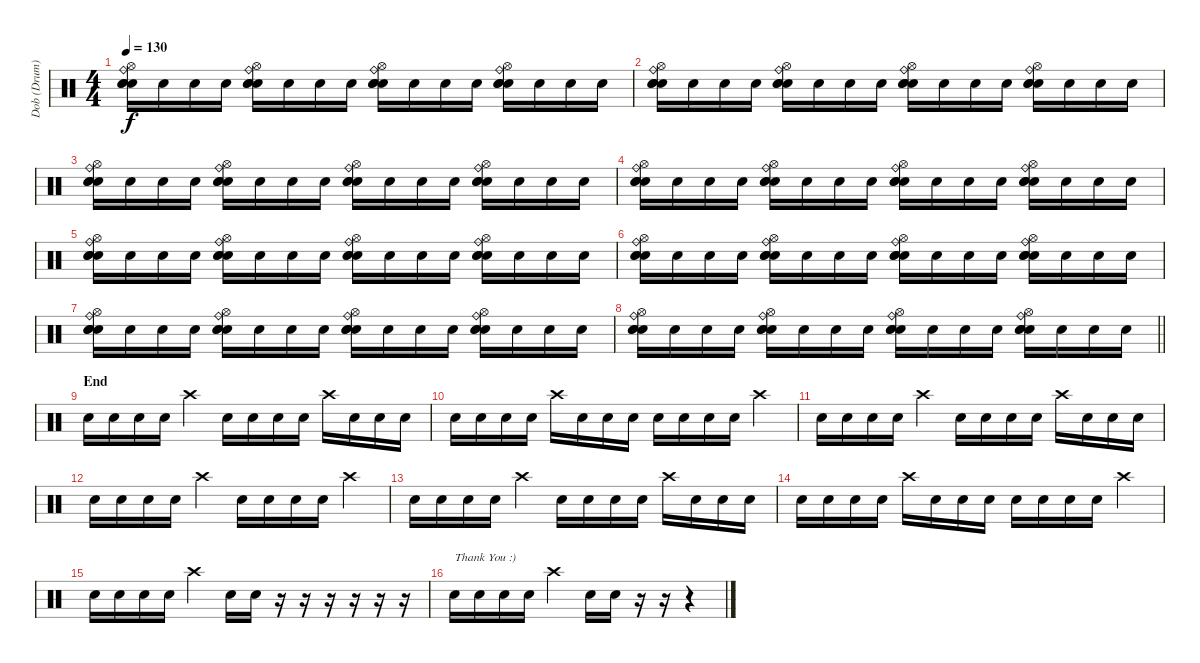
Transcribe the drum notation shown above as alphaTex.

\track ("Dob (Drum)" "Dob (Drum)") {instrument percussion}
\staff {score}
\articulation defaults
\ts (4 4)
\tempo 130
\clef neutral
\ks c
("Ride (bell)" "Hi-Hat (open)" "Hand Clap (hit)" "Electric Snare (hit)" "Snare (hit) 2").16{dy f} "Electric Snare (hit)".16 "Electric Snare (hit)".16 "Electric Snare (hit)".16 ("Ride (bell)" "Hi-Hat (open)" "Hand Clap (hit)" "Electric Snare (hit)" "Snare (hit) 2").16 "Electric Snare (hit)".16 "Electric Snare (hit)".16 "Electric Snare (hit)".16 ("Ride (bell)" "Hi-Hat (open)" "Hand Clap (hit)" "Electric Snare (hit)" "Snare (hit) 2").16 "Electric Snare (hit)".16 "Electric Snare (hit)".16 "Electric Snare (hit)".16 ("Ride (bell)" "Hi-Hat (open)" "Hand Clap (hit)" "Electric Snare (hit)" "Snare (hit) 2").16 "Electric Snare (hit)".16 "Electric Snare (hit)".16 "Electric Snare (hit)".16 |
("Ride (bell)" "Hi-Hat (open)" "Hand Clap (hit)" "Electric Snare (hit)" "Snare (hit) 2").16 "Electric Snare (hit)".16 "Electric Snare (hit)".16 "Electric Snare (hit)".16 ("Ride (bell)" "Hi-Hat (open)" "Hand Clap (hit)" "Electric Snare (hit)" "Snare (hit) 2").16 "Electric Snare (hit)".16 "Electric Snare (hit)".16 "Electric Snare (hit)".16 ("Ride (bell)" "Hi-Hat (open)" "Hand Clap (hit)" "Electric Snare (hit)" "Snare (hit) 2").16 "Electric Snare (hit)".16 "Electric Snare (hit)".16 "Electric Snare (hit)".16 ("Ride (bell)" "Hi-Hat (open)" "Hand Clap (hit)" "Electric Snare (hit)" "Snare (hit) 2").16 "Electric Snare (hit)".16 "Electric Snare (hit)".16 "Electric Snare (hit)".16 |
("Ride (bell)" "Hi-Hat (open)" "Hand Clap (hit)" "Electric Snare (hit)" "Snare (hit) 2").16 "Electric Snare (hit)".16 "Electric Snare (hit)".16 "Electric Snare (hit)".16 ("Ride (bell)" "Hi-Hat (open)" "Hand Clap (hit)" "Electric Snare (hit)" "Snare (hit) 2").16 "Electric Snare (hit)".16 "Electric Snare (hit)".16 "Electric Snare (hit)".16 ("Ride (bell)" "Hi-Hat (open)" "Hand Clap (hit)" "Electric Snare (hit)" "Snare (hit) 2").16 "Electric Snare (hit)".16 "Electric Snare (hit)".16 "Electric Snare (hit)".16 ("Ride (bell)" "Hi-Hat (open)" "Hand Clap (hit)" "Electric Snare (hit)" "Snare (hit) 2").16 "Electric Snare (hit)".16 "Electric Snare (hit)".16 "Electric Snare (hit)".16 |
("Ride (bell)" "Hi-Hat (open)" "Hand Clap (hit)" "Electric Snare (hit)" "Snare (hit) 2").16 "Electric Snare (hit)".16 "Electric Snare (hit)".16 "Electric Snare (hit)".16 ("Ride (bell)" "Hi-Hat (open)" "Hand Clap (hit)" "Electric Snare (hit)" "Snare (hit) 2").16 "Electric Snare (hit)".16 "Electric Snare (hit)".16 "Electric Snare (hit)".16 ("Ride (bell)" "Hi-Hat (open)" "Hand Clap (hit)" "Electric Snare (hit)" "Snare (hit) 2").16 "Electric Snare (hit)".16 "Electric Snare (hit)".16 "Electric Snare (hit)".16 ("Ride (bell)" "Hi-Hat (open)" "Hand Clap (hit)" "Electric Snare (hit)" "Snare (hit) 2").16 "Electric Snare (hit)".16 "Electric Snare (hit)".16 "Electric Snare (hit)".16 |
("Ride (bell)" "Hi-Hat (open)" "Hand Clap (hit)" "Electric Snare (hit)" "Snare (hit) 2").16 "Electric Snare (hit)".16 "Electric Snare (hit)".16 "Electric Snare (hit)".16 ("Ride (bell)" "Hi-Hat (open)" "Hand Clap (hit)" "Electric Snare (hit)" "Snare (hit) 2").16 "Electric Snare (hit)".16 "Electric Snare (hit)".16 "Electric Snare (hit)".16 ("Ride (bell)" "Hi-Hat (open)" "Hand Clap (hit)" "Electric Snare (hit)" "Snare (hit) 2").16 "Electric Snare (hit)".16 "Electric Snare (hit)".16 "Electric Snare (hit)".16 ("Ride (bell)" "Hi-Hat (open)" "Hand Clap (hit)" "Electric Snare (hit)" "Snare (hit) 2").16 "Electric Snare (hit)".16 "Electric Snare (hit)".16 "Electric Snare (hit)".16 |
("Ride (bell)" "Hi-Hat (open)" "Hand Clap (hit)" "Electric Snare (hit)" "Snare (hit) 2").16 "Electric Snare (hit)".16 "Electric Snare (hit)".16 "Electric Snare (hit)".16 ("Ride (bell)" "Hi-Hat (open)" "Hand Clap (hit)" "Electric Snare (hit)" "Snare (hit) 2").16 "Electric Snare (hit)".16 "Electric Snare (hit)".16 "Electric Snare (hit)".16 ("Ride (bell)" "Hi-Hat (open)" "Hand Clap (hit)" "Electric Snare (hit)" "Snare (hit) 2").16 "Electric Snare (hit)".16 "Electric Snare (hit)".16 "Electric Snare (hit)".16 ("Ride (bell)" "Hi-Hat (open)" "Hand Clap (hit)" "Electric Snare (hit)" "Snare (hit) 2").16 "Electric Snare (hit)".16 "Electric Snare (hit)".16 "Electric Snare (hit)".16 |
("Ride (bell)" "Hi-Hat (open)" "Hand Clap (hit)" "Electric Snare (hit)" "Snare (hit) 2").16 "Electric Snare (hit)".16 "Electric Snare (hit)".16 "Electric Snare (hit)".16 ("Ride (bell)" "Hi-Hat (open)" "Hand Clap (hit)" "Electric Snare (hit)" "Snare (hit) 2").16 "Electric Snare (hit)".16 "Electric Snare (hit)".16 "Electric Snare (hit)".16 ("Ride (bell)" "Hi-Hat (open)" "Hand Clap (hit)" "Electric Snare (hit)" "Snare (hit) 2").16 "Electric Snare (hit)".16 "Electric Snare (hit)".16 "Electric Snare (hit)".16 ("Ride (bell)" "Hi-Hat (open)" "Hand Clap (hit)" "Electric Snare (hit)" "Snare (hit) 2").16 "Electric Snare (hit)".16 "Electric Snare (hit)".16 "Electric Snare (hit)".16 |
\barLineRight lightlight
("Ride (bell)" "Hi-Hat (open)" "Hand Clap (hit)" "Electric Snare (hit)" "Snare (hit) 2").16 "Electric Snare (hit)".16 "Electric Snare (hit)".16 "Electric Snare (hit)".16 ("Ride (bell)" "Hi-Hat (open)" "Hand Clap (hit)" "Electric Snare (hit)" "Snare (hit) 2").16 "Electric Snare (hit)".16 "Electric Snare (hit)".16 "Electric Snare (hit)".16 ("Ride (bell)" "Hi-Hat (open)" "Hand Clap (hit)" "Electric Snare (hit)" "Snare (hit) 2").16 "Electric Snare (hit)".16 "Electric Snare (hit)".16 "Electric Snare (hit)".16 ("Ride (bell)" "Hi-Hat (open)" "Hand Clap (hit)" "Electric Snare (hit)" "Snare (hit) 2").16 "Electric Snare (hit)".16 "Electric Snare (hit)".16 "Electric Snare (hit)".16 |
\section ("" "End ")
"Electric Snare (hit)".16 "Electric Snare (hit)".16 "Electric Snare (hit)".16 "Electric Snare (hit)".16 "Crash high (hit)".4 "Electric Snare (hit)".16 "Electric Snare (hit)".16 "Electric Snare (hit)".16 "Electric Snare (hit)".16 "Crash high (hit)".16 "Electric Snare (hit)".16 "Electric Snare (hit)".16 "Electric Snare (hit)".16 |
"Electric Snare (hit)".16 "Electric Snare (hit)".16 "Electric Snare (hit)".16 "Electric Snare (hit)".16 "Crash high (hit)".16 "Electric Snare (hit)".16 "Electric Snare (hit)".16 "Electric Snare (hit)".16 "Electric Snare (hit)".16 "Electric Snare (hit)".16 "Electric Snare (hit)".16 "Electric Snare (hit)".16 "Crash high (hit)".4 |
"Electric Snare (hit)".16 "Electric Snare (hit)".16 "Electric Snare (hit)".16 "Electric Snare (hit)".16 "Crash high (hit)".4 "Electric Snare (hit)".16 "Electric Snare (hit)".16 "Electric Snare (hit)".16 "Electric Snare (hit)".16 "Crash high (hit)".16 "Electric Snare (hit)".16 "Electric Snare (hit)".16 "Electric Snare (hit)".16 |
"Electric Snare (hit)".16 "Electric Snare (hit)".16 "Electric Snare (hit)".16 "Electric Snare (hit)".16 "Crash high (hit)".4 "Electric Snare (hit)".16 "Electric Snare (hit)".16 "Electric Snare (hit)".16 "Electric Snare (hit)".16 "Crash high (hit)".4 |
"Electric Snare (hit)".16 "Electric Snare (hit)".16 "Electric Snare (hit)".16 "Electric Snare (hit)".16 "Crash high (hit)".4 "Electric Snare (hit)".16 "Electric Snare (hit)".16 "Electric Snare (hit)".16 "Electric Snare (hit)".16 "Crash high (hit)".16 "Electric Snare (hit)".16 "Electric Snare (hit)".16 "Electric Snare (hit)".16 |
"Electric Snare (hit)".16 "Electric Snare (hit)".16 "Electric Snare (hit)".16 "Electric Snare (hit)".16 "Crash high (hit)".16 "Electric Snare (hit)".16 "Electric Snare (hit)".16 "Electric Snare (hit)".16 "Electric Snare (hit)".16 "Electric Snare (hit)".16 "Electric Snare (hit)".16 "Electric Snare (hit)".16 "Crash high (hit)".4 |
"Electric Snare (hit)".16 "Electric Snare (hit)".16 "Electric Snare (hit)".16 "Electric Snare (hit)".16 "Crash high (hit)".4 "Electric Snare (hit)".16 "Electric Snare (hit)".16 r.16 r.16 r.16 r.16 r.16 r.16 |
"Electric Snare (hit)".16{txt "Thank You :)"} "Electric Snare (hit)".16 "Electric Snare (hit)".16 "Electric Snare (hit)".16 "Crash high (hit)".4 "Electric Snare (hit)".16 "Electric Snare (hit)".16 r.16 r.16 r.4
